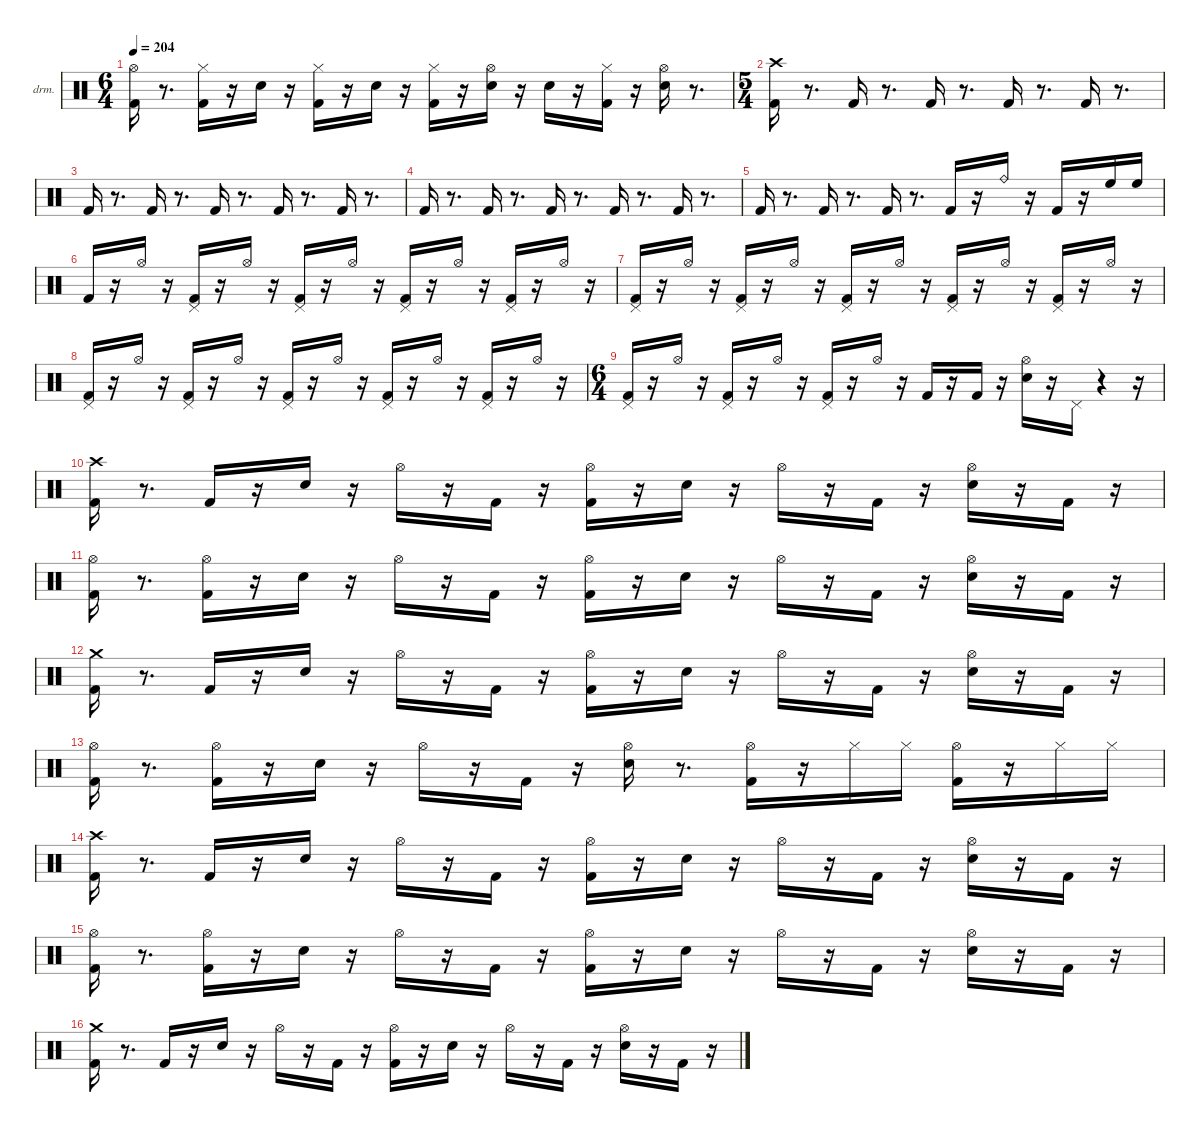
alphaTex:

\hideDynamics
\bracketExtendMode nobrackets
\firstSystemTrackNameOrientation horizontal
\otherSystemsTrackNameOrientation horizontal
\track ("drums" "drm.") {instrument percussion}
\staff {score}
\articulation defaults
\ts (6 4)
\tempo 204
\clef neutral
\ks aminor
("Kick (hit) 2" "Hi-Hat (open)"{acc #}).16{dy ff beam Down} r.8{d beam Down} ("Kick (hit) 2" "Hi-Hat (closed)"{acc #}).16{beam Down} r.16{beam Down} "Snare (hit) 2".16{dy f beam Down} r.16{beam Down} ("Kick (hit) 2" "Hi-Hat (closed)"{acc #}).16{dy ff beam Down} r.16{beam Down} "Snare (hit) 2".16{beam Down} r.16{beam Down} ("Kick (hit) 2" "Hi-Hat (closed)"{acc #}).16{beam Down} r.16{beam Down} ("Snare (hit) 2" "Hi-Hat (open)"{acc #}).16{beam Down} r.16{beam Down} "Snare (hit) 2".16{dy mf beam Down} r.16{beam Down} ("Kick (hit) 2" "Hi-Hat (closed)"{acc #}).16{dy ff beam Down} r.16{beam Down} ("Snare (hit) 2" "Hi-Hat (open)"{acc #}).16{beam Down} r.8{d beam Down} |
\ts (5 4)
("Kick (hit) 2" "Crash high (hit)"{acc #}).16{dy fff beam Down} r.8{d beam Down} "Kick (hit) 2".16{dy mp beam Up} r.8{d beam Up} "Kick (hit) 2".16{dy mf beam Up} r.8{d beam Up} "Kick (hit) 2".16{dy f beam Up} r.8{d beam Up} "Kick (hit) 2".16{dy p beam Up} r.8{d beam Up} |
"Kick (hit) 2".16{dy fff beam Up} r.8{d beam Up} "Kick (hit) 2".16{dy mp beam Up} r.8{d beam Up} "Kick (hit) 2".16{dy mf beam Up} r.8{d beam Up} "Kick (hit) 2".16{dy f beam Up} r.8{d beam Up} "Kick (hit) 2".16{dy p beam Up} r.8{d beam Up} |
"Kick (hit) 2".16{dy fff beam Up} r.8{d beam Up} "Kick (hit) 2".16{dy mp beam Up} r.8{d beam Up} "Kick (hit) 2".16{dy mf beam Up} r.8{d beam Up} "Kick (hit) 2".16{dy f beam Up} r.8{d beam Up} "Kick (hit) 2".16{dy p beam Up} r.8{d beam Up} |
"Kick (hit) 2".16{dy fff beam Up} r.8{d beam Up} "Kick (hit) 2".16{dy mp beam Up} r.8{d beam Up} "Kick (hit) 2".16{dy mf beam Up} r.8{d beam Up} "Kick (hit) 2".16{dy f beam Up} r.16{beam Up} "Ride (bell)".16{dy ff beam Down} r.16{beam Down} "Kick (hit) 2".16{dy p beam Up} r.16{beam Up} "High Floor Tom (hit)".16{dy ff beam Down} "High Floor Tom (hit)".16{dy mf beam Down} |
"Kick (hit) 2".16{dy fff beam Up} r.16{beam Up} "Hi-Hat (open)"{acc #}.16{beam Down} r.16{beam Down} ("Kick (hit) 2" "Pedal Hi-Hat (hit)"{acc #}).16{dy mp beam Up} r.16{beam Up} "Hi-Hat (open)"{acc #}.16{dy fff beam Down} r.16{beam Down} ("Kick (hit) 2" "Pedal Hi-Hat (hit)"{acc #}).16{dy mf beam Up} r.16{beam Up} "Hi-Hat (open)"{acc #}.16{dy fff beam Down} r.16{beam Down} ("Kick (hit) 2" "Pedal Hi-Hat (hit)"{acc #}).16{dy f beam Up} r.16{beam Up} "Hi-Hat (open)"{acc #}.16{dy fff beam Down} r.16{beam Down} ("Kick (hit) 2" "Pedal Hi-Hat (hit)"{acc #}).16{dy p beam Up} r.16{beam Up} "Hi-Hat (open)"{acc #}.16{dy fff beam Down} r.16{beam Down} |
("Kick (hit) 2" "Pedal Hi-Hat (hit)"{acc #}).16{beam Up} r.16{beam Up} "Hi-Hat (open)"{acc #}.16{beam Down} r.16{beam Down} ("Kick (hit) 2" "Pedal Hi-Hat (hit)"{acc #}).16{dy mp beam Up} r.16{beam Up} "Hi-Hat (open)"{acc #}.16{dy fff beam Down} r.16{beam Down} ("Kick (hit) 2" "Pedal Hi-Hat (hit)"{acc #}).16{dy mf beam Up} r.16{beam Up} "Hi-Hat (open)"{acc #}.16{dy fff beam Down} r.16{beam Down} ("Kick (hit) 2" "Pedal Hi-Hat (hit)"{acc #}).16{dy f beam Up} r.16{beam Up} "Hi-Hat (open)"{acc #}.16{dy fff beam Down} r.16{beam Down} ("Kick (hit) 2" "Pedal Hi-Hat (hit)"{acc #}).16{dy p beam Up} r.16{beam Up} "Hi-Hat (open)"{acc #}.16{dy fff beam Down} r.16{beam Down} |
("Kick (hit) 2" "Pedal Hi-Hat (hit)"{acc #}).16{beam Up} r.16{beam Up} "Hi-Hat (open)"{acc #}.16{beam Down} r.16{beam Down} ("Kick (hit) 2" "Pedal Hi-Hat (hit)"{acc #}).16{dy mp beam Up} r.16{beam Up} "Hi-Hat (open)"{acc #}.16{dy fff beam Down} r.16{beam Down} ("Kick (hit) 2" "Pedal Hi-Hat (hit)"{acc #}).16{dy mf beam Up} r.16{beam Up} "Hi-Hat (open)"{acc #}.16{dy fff beam Down} r.16{beam Down} ("Kick (hit) 2" "Pedal Hi-Hat (hit)"{acc #}).16{dy f beam Up} r.16{beam Up} "Hi-Hat (open)"{acc #}.16{dy fff beam Down} r.16{beam Down} ("Kick (hit) 2" "Pedal Hi-Hat (hit)"{acc #}).16{dy p beam Up} r.16{beam Up} "Hi-Hat (open)"{acc #}.16{dy fff beam Down} r.16{beam Down} |
\ts (6 4)
("Kick (hit) 2" "Pedal Hi-Hat (hit)"{acc #}).16{beam Up} r.16{beam Up} "Hi-Hat (open)"{acc #}.16{beam Down} r.16{beam Down} ("Kick (hit) 2" "Pedal Hi-Hat (hit)"{acc #}).16{dy mp beam Up} r.16{beam Up} "Hi-Hat (open)"{acc #}.16{dy fff beam Down} r.16{beam Down} ("Kick (hit) 2" "Pedal Hi-Hat (hit)"{acc #}).16{dy mf beam Up} r.16{beam Up} "Hi-Hat (open)"{acc #}.16{dy fff beam Down} r.16{beam Down} "Kick (hit) 2".16{dy mf beam Up} r.16{beam Up} "Kick (hit) 2".16{dy ff beam Up} r.16{beam Up} ("Snare (hit) 2" "Hi-Hat (open)"{acc #}).16{dy fff beam Down} r.16{beam Down} "Pedal Hi-Hat (hit)"{acc #}.16{dy ff beam Up} r.4{beam Up} r.16{beam Up} |
("Kick (hit) 2" "Crash high (hit)"{acc #}).16{dy fff beam Down} r.8{d beam Down} "Kick (hit) 2".16{dy f beam Up} r.16{beam Up} "Snare (hit) 2".16{dy ff beam Down} r.16{beam Down} "Hi-Hat (open)"{acc #}.16{dy f beam Down} r.16{beam Down} "Kick (hit) 2".16{dy mf beam Up} r.16{beam Up} ("Kick (hit) 2" "Hi-Hat (open)"{acc #}).16{dy f beam Down} r.16{beam Down} "Snare (hit) 2".16{dy ff beam Down} r.16{beam Down} "Hi-Hat (open)"{acc #}.16{dy mf beam Down} r.16{beam Down} "Kick (hit) 2".16{dy ff beam Up} r.16{beam Up} ("Snare (hit) 2" "Hi-Hat (open)"{acc #}).16{beam Down} r.16{beam Down} "Kick (hit) 2".16{dy mf beam Up} r.16{beam Up} |
("Kick (hit) 2" "Hi-Hat (open)"{acc #}).16{dy fff beam Down} r.8{d beam Down} ("Kick (hit) 2" "Hi-Hat (open)"{acc #}).16{dy ff beam Down} r.16{beam Down} "Snare (hit) 2".16{beam Down} r.16{beam Down} "Hi-Hat (open)"{acc #}.16{dy f beam Down} r.16{beam Down} "Kick (hit) 2".16{beam Up} r.16{beam Up} ("Kick (hit) 2" "Hi-Hat (open)"{acc #}).16{dy ff beam Down} r.16{beam Down} "Snare (hit) 2".16{beam Down} r.16{beam Down} "Hi-Hat (open)"{acc #}.16{dy mf beam Down} r.16{beam Down} "Kick (hit) 2".16{dy ff beam Up} r.16{beam Up} ("Snare (hit) 2" "Hi-Hat (open)"{acc #}).16{beam Down} r.16{beam Down} "Kick (hit) 2".16{beam Up} r.16{beam Up} |
("Kick (hit) 2" "Crash medium (hit)").16{dy fff beam Down} r.8{d beam Down} "Kick (hit) 2".16{dy f beam Up} r.16{beam Up} "Snare (hit) 2".16{dy ff beam Down} r.16{beam Down} "Hi-Hat (open)"{acc #}.16{dy f beam Down} r.16{beam Down} "Kick (hit) 2".16{dy mf beam Up} r.16{beam Up} ("Kick (hit) 2" "Hi-Hat (open)"{acc #}).16{dy f beam Down} r.16{beam Down} "Snare (hit) 2".16{dy ff beam Down} r.16{beam Down} "Hi-Hat (open)"{acc #}.16{dy mf beam Down} r.16{beam Down} "Kick (hit) 2".16{dy ff beam Up} r.16{beam Up} ("Snare (hit) 2" "Hi-Hat (open)"{acc #}).16{beam Down} r.16{beam Down} "Kick (hit) 2".16{dy mf beam Up} r.16{beam Up} |
("Kick (hit) 2" "Hi-Hat (open)"{acc #}).16{dy fff beam Down} r.8{d beam Down} ("Kick (hit) 2" "Hi-Hat (open)"{acc #}).16{dy ff beam Down} r.16{beam Down} "Snare (hit) 2".16{beam Down} r.16{beam Down} "Hi-Hat (open)"{acc #}.16{dy f beam Down} r.16{beam Down} "Kick (hit) 2".16{beam Up} r.16{beam Up} ("Snare (hit) 2" "Hi-Hat (open)"{acc #}).16{dy fff beam Down} r.8{d beam Down} ("Kick (hit) 2" "Hi-Hat (open)"{acc #}).16{dy ff beam Down} r.16{beam Down} "Hi-Hat (closed)"{acc #}.16{beam Down} "Hi-Hat (closed)"{acc #}.16{dy mf beam Down} ("Kick (hit) 2" "Hi-Hat (open)"{acc #}).16{dy ff beam Down} r.16{beam Down} "Hi-Hat (closed)"{acc #}.16{beam Down} "Hi-Hat (closed)"{acc #}.16{dy mf beam Down} |
("Kick (hit) 2" "Crash high (hit)"{acc #}).16{dy fff beam Down} r.8{d beam Down} "Kick (hit) 2".16{dy f beam Up} r.16{beam Up} "Snare (hit) 2".16{dy ff beam Down} r.16{beam Down} "Hi-Hat (open)"{acc #}.16{dy f beam Down} r.16{beam Down} "Kick (hit) 2".16{dy mf beam Up} r.16{beam Up} ("Kick (hit) 2" "Hi-Hat (open)"{acc #}).16{dy f beam Down} r.16{beam Down} "Snare (hit) 2".16{dy ff beam Down} r.16{beam Down} "Hi-Hat (open)"{acc #}.16{dy mf beam Down} r.16{beam Down} "Kick (hit) 2".16{dy ff beam Up} r.16{beam Up} ("Snare (hit) 2" "Hi-Hat (open)"{acc #}).16{beam Down} r.16{beam Down} "Kick (hit) 2".16{dy mf beam Up} r.16{beam Up} |
("Kick (hit) 2" "Hi-Hat (open)"{acc #}).16{dy fff beam Down} r.8{d beam Down} ("Kick (hit) 2" "Hi-Hat (open)"{acc #}).16{dy ff beam Down} r.16{beam Down} "Snare (hit) 2".16{beam Down} r.16{beam Down} "Hi-Hat (open)"{acc #}.16{dy f beam Down} r.16{beam Down} "Kick (hit) 2".16{beam Up} r.16{beam Up} ("Kick (hit) 2" "Hi-Hat (open)"{acc #}).16{dy ff beam Down} r.16{beam Down} "Snare (hit) 2".16{beam Down} r.16{beam Down} "Hi-Hat (open)"{acc #}.16{dy mf beam Down} r.16{beam Down} "Kick (hit) 2".16{dy ff beam Up} r.16{beam Up} ("Snare (hit) 2" "Hi-Hat (open)"{acc #}).16{beam Down} r.16{beam Down} "Kick (hit) 2".16{beam Up} r.16{beam Up} |
("Kick (hit) 2" "Crash medium (hit)").16{dy fff beam Down} r.8{d beam Down} "Kick (hit) 2".16{dy f beam Up} r.16{beam Up} "Snare (hit) 2".16{dy ff beam Down} r.16{beam Down} "Hi-Hat (open)"{acc #}.16{dy f beam Down} r.16{beam Down} "Kick (hit) 2".16{dy mf beam Up} r.16{beam Up} ("Kick (hit) 2" "Hi-Hat (open)"{acc #}).16{dy f beam Down} r.16{beam Down} "Snare (hit) 2".16{dy ff beam Down} r.16{beam Down} "Hi-Hat (open)"{acc #}.16{dy mf beam Down} r.16{beam Down} "Kick (hit) 2".16{dy ff beam Up} r.16{beam Up} ("Snare (hit) 2" "Hi-Hat (open)"{acc #}).16{beam Down} r.16{beam Down} "Kick (hit) 2".16{dy mf beam Up} r.16{beam Up}
